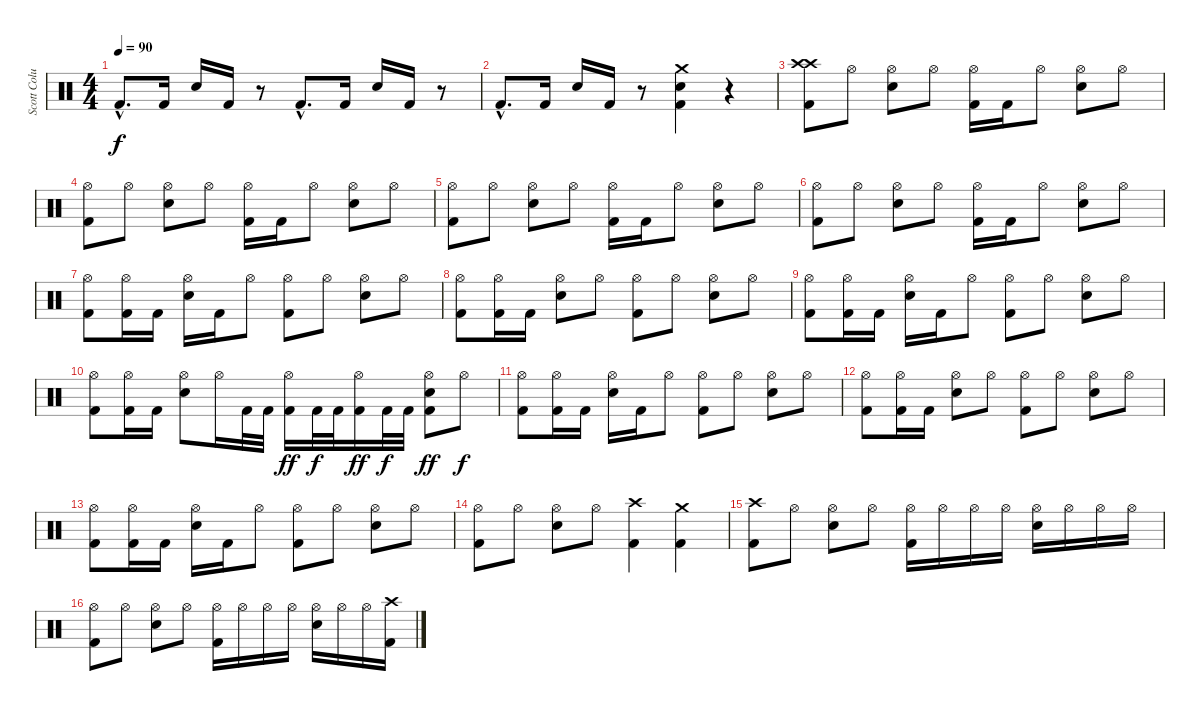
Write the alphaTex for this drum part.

\track ("Scott Columbus" "Scott Colu") {instrument percussion}
\staff {score}
\articulation defaults
\ts (4 4)
\tempo 90
\clef neutral
\ks c "Kick (hit) 2"{hac}.8{d dy f} "Kick (hit) 2".16 "Snare (hit) 2".16 "Kick (hit) 2".16
r.8 "Kick (hit) 2"{hac}.8{d} "Kick (hit) 2".16 "Snare (hit) 2".16 "Kick (hit) 2".16 r.8 |
"Kick (hit) 2"{hac}.8{d} "Kick (hit) 2".16 "Snare (hit) 2".16 "Kick (hit) 2".16 r.8 ("Crash medium (hit)" "Snare (hit) 2" "Kick (hit) 2").4 r.4 |
("Crash high (hit)" "Crash high (hit)" "Kick (hit) 2").8 "Hi-Hat (open)".8 ("Hi-Hat (open)" "Snare (hit) 2").8 "Hi-Hat (open)".8 ("Hi-Hat (open)" "Kick (hit) 2").16 "Kick (hit) 2".16 "Hi-Hat (open)".8 ("Hi-Hat (open)" "Snare (hit) 2").8 "Hi-Hat (open)".8 |
("Hi-Hat (open)" "Kick (hit) 2").8 "Hi-Hat (open)".8 ("Hi-Hat (open)" "Snare (hit) 2").8 "Hi-Hat (open)".8 ("Hi-Hat (open)" "Kick (hit) 2").16 "Kick (hit) 2".16 "Hi-Hat (open)".8 ("Hi-Hat (open)" "Snare (hit) 2").8 "Hi-Hat (open)".8 |
("Hi-Hat (open)" "Kick (hit) 2").8 "Hi-Hat (open)".8 ("Hi-Hat (open)" "Snare (hit) 2").8 "Hi-Hat (open)".8 ("Hi-Hat (open)" "Kick (hit) 2").16 "Kick (hit) 2".16 "Hi-Hat (open)".8 ("Hi-Hat (open)" "Snare (hit) 2").8 "Hi-Hat (open)".8 |
("Hi-Hat (open)" "Kick (hit) 2").8 "Hi-Hat (open)".8 ("Hi-Hat (open)" "Snare (hit) 2").8 "Hi-Hat (open)".8 ("Hi-Hat (open)" "Kick (hit) 2").16 "Kick (hit) 2".16 "Hi-Hat (open)".8 ("Hi-Hat (open)" "Snare (hit) 2").8 "Hi-Hat (open)".8 |
("Hi-Hat (open)" "Kick (hit) 2").8 ("Hi-Hat (open)" "Kick (hit) 2").16 "Kick (hit) 2".16 ("Hi-Hat (open)" "Snare (hit) 2").16 "Kick (hit) 2".16 "Hi-Hat (open)".8 ("Hi-Hat (open)" "Kick (hit) 2").8 "Hi-Hat (open)".8 ("Hi-Hat (open)" "Snare (hit) 2").8 "Hi-Hat (open)".8 |
("Hi-Hat (open)" "Kick (hit) 2").8 ("Hi-Hat (open)" "Kick (hit) 2").16 "Kick (hit) 2".16 ("Hi-Hat (open)" "Snare (hit) 2").8 "Hi-Hat (open)".8 ("Hi-Hat (open)" "Kick (hit) 2").8 "Hi-Hat (open)".8 ("Hi-Hat (open)" "Snare (hit) 2").8 "Hi-Hat (open)".8 |
("Hi-Hat (open)" "Kick (hit) 2").8 ("Hi-Hat (open)" "Kick (hit) 2").16 "Kick (hit) 2".16 ("Hi-Hat (open)" "Snare (hit) 2").16 "Kick (hit) 2".16 "Hi-Hat (open)".8 ("Hi-Hat (open)" "Kick (hit) 2").8 "Hi-Hat (open)".8 ("Hi-Hat (open)" "Snare (hit) 2").8 "Hi-Hat (open)".8 |
("Hi-Hat (open)" "Kick (hit) 2").8 ("Hi-Hat (open)" "Kick (hit) 2").16 "Kick (hit) 2".16 ("Hi-Hat (open)" "Snare (hit) 2").8 "Hi-Hat (open)".16 "Kick (hit) 2".32 "Kick (hit) 2".32 ("Hi-Hat (open)" "Kick (hit) 2").16{dy ff} "Kick (hit) 2".32{dy f} "Kick (hit) 2".32 ("Hi-Hat (open)" "Kick (hit) 2").16{dy ff} "Kick (hit) 2".32{dy f} "Kick (hit) 2".32 ("Hi-Hat (open)" "Snare (hit) 2" "Kick (hit) 2").8{dy ff} "Hi-Hat (open)".8{dy f} |
("Hi-Hat (open)" "Kick (hit) 2").8 ("Hi-Hat (open)" "Kick (hit) 2").16 "Kick (hit) 2".16 ("Hi-Hat (open)" "Snare (hit) 2").16 "Kick (hit) 2".16 "Hi-Hat (open)".8 ("Hi-Hat (open)" "Kick (hit) 2").8 "Hi-Hat (open)".8 ("Hi-Hat (open)" "Snare (hit) 2").8 "Hi-Hat (open)".8 |
("Hi-Hat (open)" "Kick (hit) 2").8 ("Hi-Hat (open)" "Kick (hit) 2").16 "Kick (hit) 2".16 ("Hi-Hat (open)" "Snare (hit) 2").8 "Hi-Hat (open)".8 ("Hi-Hat (open)" "Kick (hit) 2").8 "Hi-Hat (open)".8 ("Hi-Hat (open)" "Snare (hit) 2").8 "Hi-Hat (open)".8 |
("Hi-Hat (open)" "Kick (hit) 2").8 ("Hi-Hat (open)" "Kick (hit) 2").16 "Kick (hit) 2".16 ("Hi-Hat (open)" "Snare (hit) 2").16 "Kick (hit) 2".16 "Hi-Hat (open)".8 ("Hi-Hat (open)" "Kick (hit) 2").8 "Hi-Hat (open)".8 ("Hi-Hat (open)" "Snare (hit) 2").8 "Hi-Hat (open)".8 |
("Hi-Hat (open)" "Kick (hit) 2").8 "Hi-Hat (open)".8 ("Hi-Hat (open)" "Snare (hit) 2").8 "Hi-Hat (open)".8 ("Crash high (hit)" "Kick (hit) 2").4 ("Crash medium (hit)" "Kick (hit) 2").4 |
("Crash high (hit)" "Kick (hit) 2").8 "Hi-Hat (open)".8 ("Hi-Hat (open)" "Snare (hit) 2").8 "Hi-Hat (open)".8 ("Hi-Hat (open)" "Kick (hit) 2").16 "Hi-Hat (open)".16 "Hi-Hat (open)".16 "Hi-Hat (open)".16 ("Hi-Hat (open)" "Snare (hit) 2").16 "Hi-Hat (open)".16 "Hi-Hat (open)".16 "Hi-Hat (open)".16 |
("Hi-Hat (open)" "Kick (hit) 2").8 "Hi-Hat (open)".8 ("Hi-Hat (open)" "Snare (hit) 2").8 "Hi-Hat (open)".8 ("Hi-Hat (open)" "Kick (hit) 2").16 "Hi-Hat (open)".16 "Hi-Hat (open)".16 "Hi-Hat (open)".16 ("Hi-Hat (open)" "Snare (hit) 2").16 "Hi-Hat (open)".16 "Hi-Hat (open)".16 ("Crash high (hit)" "Kick (hit) 2").16
